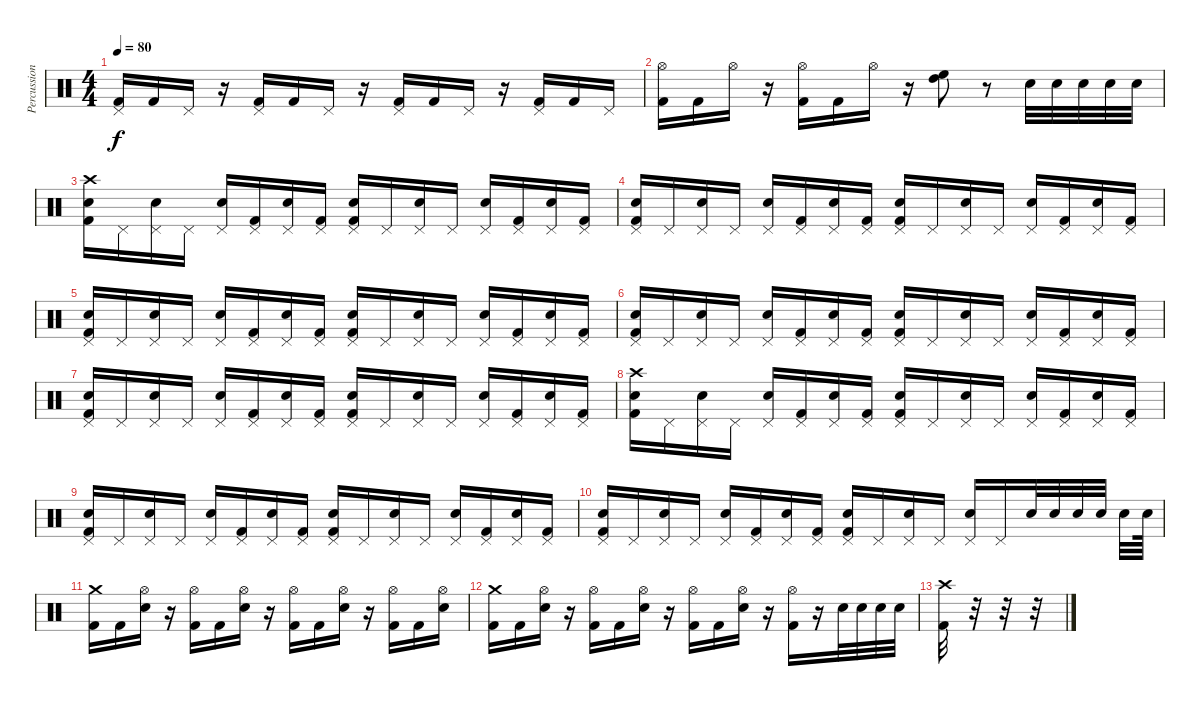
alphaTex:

\track ("Percussion" "Percussion") {instrument percussion}
\staff {score}
\articulation defaults
\ts (4 4)
\tempo 80
\clef neutral
\ks c
("Pedal Hi-Hat (hit)" "Kick (hit) 2").16{dy f} "Kick (hit) 2".16 "Pedal Hi-Hat (hit)".16 r.16 ("Pedal Hi-Hat (hit)" "Kick (hit) 2").16 "Kick (hit) 2".16 "Pedal Hi-Hat (hit)".16 r.16 ("Pedal Hi-Hat (hit)" "Kick (hit) 2").16 "Kick (hit) 2".16 "Pedal Hi-Hat (hit)".16 r.16 ("Pedal Hi-Hat (hit)" "Kick (hit) 2").16 "Kick (hit) 2".16 "Pedal Hi-Hat (hit)".16 |
("Hi-Hat (open)" "Kick (hit) 2").16 "Kick (hit) 2".16 "Hi-Hat (open)".16 r.16 ("Hi-Hat (open)" "Kick (hit) 2").16 "Kick (hit) 2".16 "Hi-Hat (open)".16 r.16 ("High Floor Tom (hit)" "High Tom (hit)").8 r.8 "Electric Snare (hit)".32 "Electric Snare (hit)".32 "Electric Snare (hit)".32 "Electric Snare (hit)".32 "Electric Snare (hit)".32 |
("Crash high (hit)" "Electric Snare (hit)" "Kick (hit) 2").16 "Pedal Hi-Hat (hit)".16 ("Pedal Hi-Hat (hit)" "Electric Snare (hit)").16 "Pedal Hi-Hat (hit)".16 ("Pedal Hi-Hat (hit)" "Electric Snare (hit)").16 ("Pedal Hi-Hat (hit)" "Kick (hit) 2").16 ("Pedal Hi-Hat (hit)" "Electric Snare (hit)").16 ("Pedal Hi-Hat (hit)" "Kick (hit) 2").16 ("Pedal Hi-Hat (hit)" "Electric Snare (hit)" "Kick (hit) 2").16 "Pedal Hi-Hat (hit)".16 ("Pedal Hi-Hat (hit)" "Electric Snare (hit)").16 "Pedal Hi-Hat (hit)".16 ("Pedal Hi-Hat (hit)" "Electric Snare (hit)").16 ("Pedal Hi-Hat (hit)" "Kick (hit) 2").16 ("Pedal Hi-Hat (hit)" "Electric Snare (hit)").16 ("Pedal Hi-Hat (hit)" "Kick (hit) 2").16 |
("Pedal Hi-Hat (hit)" "Electric Snare (hit)" "Kick (hit) 2").16 "Pedal Hi-Hat (hit)".16 ("Pedal Hi-Hat (hit)" "Electric Snare (hit)").16 "Pedal Hi-Hat (hit)".16 ("Pedal Hi-Hat (hit)" "Electric Snare (hit)").16 ("Pedal Hi-Hat (hit)" "Kick (hit) 2").16 ("Pedal Hi-Hat (hit)" "Electric Snare (hit)").16 ("Pedal Hi-Hat (hit)" "Kick (hit) 2").16 ("Pedal Hi-Hat (hit)" "Electric Snare (hit)" "Kick (hit) 2").16 "Pedal Hi-Hat (hit)".16 ("Pedal Hi-Hat (hit)" "Electric Snare (hit)").16 "Pedal Hi-Hat (hit)".16 ("Pedal Hi-Hat (hit)" "Electric Snare (hit)").16 ("Pedal Hi-Hat (hit)" "Kick (hit) 2").16 ("Pedal Hi-Hat (hit)" "Electric Snare (hit)").16 ("Pedal Hi-Hat (hit)" "Kick (hit) 2").16 |
("Pedal Hi-Hat (hit)" "Electric Snare (hit)" "Kick (hit) 2").16 "Pedal Hi-Hat (hit)".16 ("Pedal Hi-Hat (hit)" "Electric Snare (hit)").16 "Pedal Hi-Hat (hit)".16 ("Pedal Hi-Hat (hit)" "Electric Snare (hit)").16 ("Pedal Hi-Hat (hit)" "Kick (hit) 2").16 ("Pedal Hi-Hat (hit)" "Electric Snare (hit)").16 ("Pedal Hi-Hat (hit)" "Kick (hit) 2").16 ("Pedal Hi-Hat (hit)" "Electric Snare (hit)" "Kick (hit) 2").16 "Pedal Hi-Hat (hit)".16 ("Pedal Hi-Hat (hit)" "Electric Snare (hit)").16 "Pedal Hi-Hat (hit)".16 ("Pedal Hi-Hat (hit)" "Electric Snare (hit)").16 ("Pedal Hi-Hat (hit)" "Kick (hit) 2").16 ("Pedal Hi-Hat (hit)" "Electric Snare (hit)").16 ("Pedal Hi-Hat (hit)" "Kick (hit) 2").16 |
("Pedal Hi-Hat (hit)" "Electric Snare (hit)" "Kick (hit) 2").16 "Pedal Hi-Hat (hit)".16 ("Pedal Hi-Hat (hit)" "Electric Snare (hit)").16 "Pedal Hi-Hat (hit)".16 ("Pedal Hi-Hat (hit)" "Electric Snare (hit)").16 ("Pedal Hi-Hat (hit)" "Kick (hit) 2").16 ("Pedal Hi-Hat (hit)" "Electric Snare (hit)").16 ("Pedal Hi-Hat (hit)" "Kick (hit) 2").16 ("Pedal Hi-Hat (hit)" "Electric Snare (hit)" "Kick (hit) 2").16 "Pedal Hi-Hat (hit)".16 ("Pedal Hi-Hat (hit)" "Electric Snare (hit)").16 "Pedal Hi-Hat (hit)".16 ("Pedal Hi-Hat (hit)" "Electric Snare (hit)").16 ("Pedal Hi-Hat (hit)" "Kick (hit) 2").16 ("Pedal Hi-Hat (hit)" "Electric Snare (hit)").16 ("Pedal Hi-Hat (hit)" "Kick (hit) 2").16 |
("Pedal Hi-Hat (hit)" "Electric Snare (hit)" "Kick (hit) 2").16 "Pedal Hi-Hat (hit)".16 ("Pedal Hi-Hat (hit)" "Electric Snare (hit)").16 "Pedal Hi-Hat (hit)".16 ("Pedal Hi-Hat (hit)" "Electric Snare (hit)").16 ("Pedal Hi-Hat (hit)" "Kick (hit) 2").16 ("Pedal Hi-Hat (hit)" "Electric Snare (hit)").16 ("Pedal Hi-Hat (hit)" "Kick (hit) 2").16 ("Pedal Hi-Hat (hit)" "Electric Snare (hit)" "Kick (hit) 2").16 "Pedal Hi-Hat (hit)".16 ("Pedal Hi-Hat (hit)" "Electric Snare (hit)").16 "Pedal Hi-Hat (hit)".16 ("Pedal Hi-Hat (hit)" "Electric Snare (hit)").16 ("Pedal Hi-Hat (hit)" "Kick (hit) 2").16 ("Pedal Hi-Hat (hit)" "Electric Snare (hit)").16 ("Pedal Hi-Hat (hit)" "Kick (hit) 2").16 |
("Crash high (hit)" "Electric Snare (hit)" "Kick (hit) 2").16 "Pedal Hi-Hat (hit)".16 ("Pedal Hi-Hat (hit)" "Electric Snare (hit)").16 "Pedal Hi-Hat (hit)".16 ("Pedal Hi-Hat (hit)" "Electric Snare (hit)").16 ("Pedal Hi-Hat (hit)" "Kick (hit) 2").16 ("Pedal Hi-Hat (hit)" "Electric Snare (hit)").16 ("Pedal Hi-Hat (hit)" "Kick (hit) 2").16 ("Pedal Hi-Hat (hit)" "Electric Snare (hit)" "Kick (hit) 2").16 "Pedal Hi-Hat (hit)".16 ("Pedal Hi-Hat (hit)" "Electric Snare (hit)").16 "Pedal Hi-Hat (hit)".16 ("Pedal Hi-Hat (hit)" "Electric Snare (hit)").16 ("Pedal Hi-Hat (hit)" "Kick (hit) 2").16 ("Pedal Hi-Hat (hit)" "Electric Snare (hit)").16 ("Pedal Hi-Hat (hit)" "Kick (hit) 2").16 |
("Pedal Hi-Hat (hit)" "Electric Snare (hit)" "Kick (hit) 2").16 "Pedal Hi-Hat (hit)".16 ("Pedal Hi-Hat (hit)" "Electric Snare (hit)").16 "Pedal Hi-Hat (hit)".16 ("Pedal Hi-Hat (hit)" "Electric Snare (hit)").16 ("Pedal Hi-Hat (hit)" "Kick (hit) 2").16 ("Pedal Hi-Hat (hit)" "Electric Snare (hit)").16 ("Pedal Hi-Hat (hit)" "Kick (hit) 2").16 ("Pedal Hi-Hat (hit)" "Electric Snare (hit)" "Kick (hit) 2").16 "Pedal Hi-Hat (hit)".16 ("Pedal Hi-Hat (hit)" "Electric Snare (hit)").16 "Pedal Hi-Hat (hit)".16 ("Pedal Hi-Hat (hit)" "Electric Snare (hit)").16 ("Pedal Hi-Hat (hit)" "Kick (hit) 2").16 ("Pedal Hi-Hat (hit)" "Electric Snare (hit)").16 ("Pedal Hi-Hat (hit)" "Kick (hit) 2").16 |
("Pedal Hi-Hat (hit)" "Electric Snare (hit)" "Kick (hit) 2").16 "Pedal Hi-Hat (hit)".16 ("Pedal Hi-Hat (hit)" "Electric Snare (hit)").16 "Pedal Hi-Hat (hit)".16 ("Pedal Hi-Hat (hit)" "Electric Snare (hit)").16 ("Pedal Hi-Hat (hit)" "Kick (hit) 2").16 ("Pedal Hi-Hat (hit)" "Electric Snare (hit)").16 ("Pedal Hi-Hat (hit)" "Kick (hit) 2").16 ("Pedal Hi-Hat (hit)" "Electric Snare (hit)" "Kick (hit) 2").16 "Pedal Hi-Hat (hit)".16 ("Pedal Hi-Hat (hit)" "Electric Snare (hit)").16 "Pedal Hi-Hat (hit)".16 ("Pedal Hi-Hat (hit)" "Electric Snare (hit)").16 "Pedal Hi-Hat (hit)".16 "Electric Snare (hit)".32 "Electric Snare (hit)".32 "Electric Snare (hit)".32 "Electric Snare (hit)".32 "Electric Snare (hit)".32 "Electric Snare (hit)".64 |
("Crash medium (hit)" "Kick (hit) 2").16 "Kick (hit) 2".16 ("Hi-Hat (open)" "Electric Snare (hit)").16 r.16 ("Hi-Hat (open)" "Kick (hit) 2").16 "Kick (hit) 2".16 ("Hi-Hat (open)" "Electric Snare (hit)").16 r.16 ("Hi-Hat (open)" "Kick (hit) 2").16 "Kick (hit) 2".16 ("Hi-Hat (open)" "Electric Snare (hit)").16 r.16 ("Hi-Hat (open)" "Kick (hit) 2").16 "Kick (hit) 2".16 ("Hi-Hat (open)" "Electric Snare (hit)").16 |
("Crash medium (hit)" "Kick (hit) 2").16 "Kick (hit) 2".16 ("Hi-Hat (open)" "Electric Snare (hit)").16 r.16 ("Hi-Hat (open)" "Kick (hit) 2").16 "Kick (hit) 2".16 ("Hi-Hat (open)" "Electric Snare (hit)").16 r.16 ("Hi-Hat (open)" "Kick (hit) 2").16 "Kick (hit) 2".16 ("Hi-Hat (open)" "Electric Snare (hit)").16 r.16 ("Hi-Hat (open)" "Kick (hit) 2").16 r.16 "Electric Snare (hit)".32 "Electric Snare (hit)".32 "Electric Snare (hit)".32 "Electric Snare (hit)".32 |
("Crash high (hit)" "Kick (hit) 2").32 r.32 r.32 r.32
